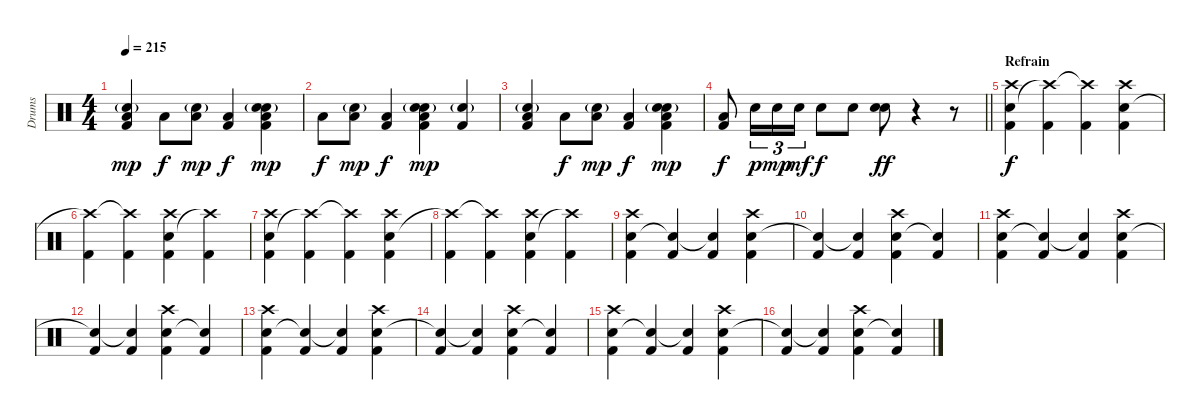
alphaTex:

\track ("Drums" "Drums") {instrument percussion}
\staff {score}
\articulation defaults
\ts (4 4)
\tempo 215
\clef neutral
\ks c
("Electric Snare (hit)"{g} "Low Floor Tom (hit)" "Kick (hit) 2").4{dy mp} "Low Floor Tom (hit)".8{dy f} ("Electric Snare (hit)"{g} "Low Floor Tom (hit)").8{dy mp} ("Low Floor Tom (hit)" "Kick (hit) 2").4{dy f} ("Electric Snare (hit)" "Kick (hit) 2" "Low Floor Tom (hit)" "Snare (hit) 2"{g}).4{dy mp} |
"Low Floor Tom (hit)".8{dy f} ("Electric Snare (hit)"{g} "Low Floor Tom (hit)").8{dy mp} ("Low Floor Tom (hit)" "Kick (hit) 2").4{dy f} ("Snare (hit) 2"{g} "Electric Snare (hit)" "Kick (hit) 2" "Low Floor Tom (hit)").4{dy mp} ("Electric Snare (hit)"{g} "Kick (hit) 2").4 |
("Electric Snare (hit)"{g} "Low Floor Tom (hit)" "Kick (hit) 2").4 "Low Floor Tom (hit)".8{dy f} ("Electric Snare (hit)"{g} "Low Floor Tom (hit)").8{dy mp} ("Low Floor Tom (hit)" "Kick (hit) 2").4{dy f} ("Electric Snare (hit)" "Kick (hit) 2" "Low Floor Tom (hit)" "Snare (hit) 2"{g}).4{dy mp} |
\barLineRight lightlight
("Low Floor Tom (hit)" "Kick (hit) 2").8{dy f} "Snare (hit) 2".16{tu (3 2) dy p} "Snare (hit) 2".16{tu (3 2) dy mp} "Snare (hit) 2".16{tu (3 2) dy mf} "Snare (hit) 2".8{dy f} "Snare (hit) 2".8 ("Electric Snare (hit)" "Snare (hit) 2").8{dy ff} r.4 r.8 |
\section ("" "Refrain")
("Kick (hit) 2" "Snare (hit) 2" "Crash high (hit)").4{dy f} ("Kick (hit) 2" "Crash high (hit)"{t}).4 ("Kick (hit) 2" "Crash high (hit)"{t}).4 ("Kick (hit) 2" "Snare (hit) 2" "Crash high (hit)").4 |
("Kick (hit) 2" "Crash high (hit)"{t}).4 ("Kick (hit) 2" "Crash high (hit)"{t}).4 ("Kick (hit) 2" "Snare (hit) 2" "Crash high (hit)").4 ("Kick (hit) 2" "Crash high (hit)"{t}).4 |
("Kick (hit) 2" "Snare (hit) 2" "Crash high (hit)").4 ("Kick (hit) 2" "Crash high (hit)"{t}).4 ("Kick (hit) 2" "Crash high (hit)"{t}).4 ("Kick (hit) 2" "Snare (hit) 2" "Crash high (hit)").4 |
("Kick (hit) 2" "Crash high (hit)"{t}).4 ("Kick (hit) 2" "Crash high (hit)"{t}).4 ("Kick (hit) 2" "Snare (hit) 2" "Crash high (hit)").4 ("Kick (hit) 2" "Crash high (hit)"{t}).4 |
("Kick (hit) 2" "Snare (hit) 2" "Crash high (hit)").4 ("Kick (hit) 2" "Snare (hit)"{t}).4 ("Kick (hit) 2" "Snare (hit)"{t}).4 ("Kick (hit) 2" "Snare (hit) 2" "Crash high (hit)").4 |
("Kick (hit) 2" "Snare (hit)"{t}).4 ("Kick (hit) 2" "Snare (hit)"{t}).4 ("Kick (hit) 2" "Snare (hit) 2" "Crash high (hit)").4 ("Kick (hit) 2" "Snare (hit)"{t}).4 |
("Kick (hit) 2" "Snare (hit) 2" "Crash high (hit)").4 ("Kick (hit) 2" "Snare (hit)"{t}).4 ("Kick (hit) 2" "Snare (hit)"{t}).4 ("Kick (hit) 2" "Snare (hit) 2" "Crash high (hit)").4 |
("Kick (hit) 2" "Snare (hit)"{t}).4 ("Kick (hit) 2" "Snare (hit)"{t}).4 ("Kick (hit) 2" "Snare (hit) 2" "Crash high (hit)").4 ("Kick (hit) 2" "Snare (hit)"{t}).4 |
("Kick (hit) 2" "Snare (hit) 2" "Crash high (hit)").4 ("Kick (hit) 2" "Snare (hit)"{t}).4 ("Kick (hit) 2" "Snare (hit)"{t}).4 ("Kick (hit) 2" "Snare (hit) 2" "Crash high (hit)").4 |
("Kick (hit) 2" "Snare (hit)"{t}).4 ("Kick (hit) 2" "Snare (hit)"{t}).4 ("Kick (hit) 2" "Snare (hit) 2" "Crash high (hit)").4 ("Kick (hit) 2" "Snare (hit)"{t}).4 |
("Kick (hit) 2" "Snare (hit) 2" "Crash high (hit)").4 ("Kick (hit) 2" "Snare (hit)"{t}).4 ("Kick (hit) 2" "Snare (hit)"{t}).4 ("Kick (hit) 2" "Snare (hit) 2" "Crash high (hit)").4 |
("Kick (hit) 2" "Snare (hit)"{t}).4 ("Kick (hit) 2" "Snare (hit)"{t}).4 ("Kick (hit) 2" "Snare (hit) 2" "Crash high (hit)").4 ("Kick (hit) 2" "Snare (hit)"{t}).4
